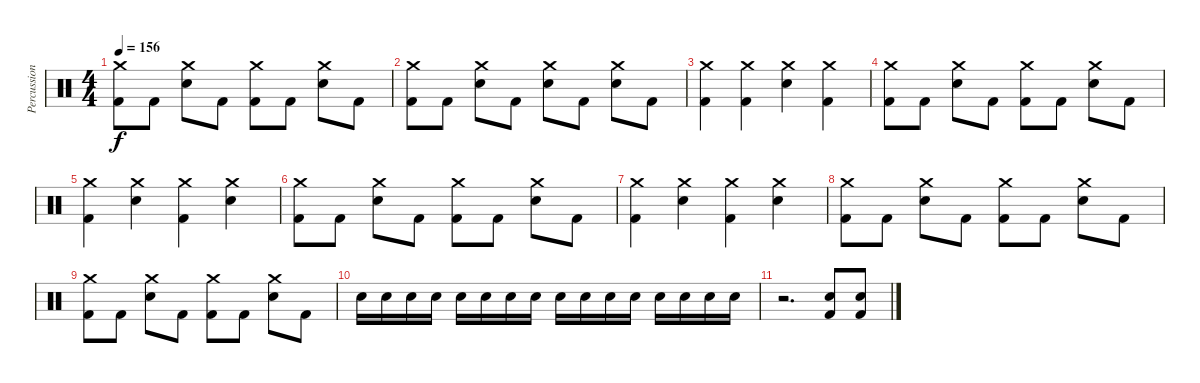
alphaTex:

\track ("Percussion" "Percussion") {instrument percussion}
\staff {score}
\articulation defaults
\ts (4 4)
\tempo 156
\clef neutral
\ks c
("Crash medium (hit)" "Kick (hit) 2").8{dy f} "Kick (hit) 2".8 ("Crash medium (hit)" "Electric Snare (hit)").8 "Kick (hit) 2".8 ("Crash medium (hit)" "Kick (hit) 2").8 "Kick (hit) 2".8 ("Crash medium (hit)" "Electric Snare (hit)").8 "Kick (hit) 2".8 |
("Crash medium (hit)" "Kick (hit) 2").8 "Kick (hit) 2".8 ("Crash medium (hit)" "Electric Snare (hit)").8 "Kick (hit) 2".8 ("Crash medium (hit)" "Electric Snare (hit)").8 "Kick (hit) 2".8 ("Crash medium (hit)" "Electric Snare (hit)").8 "Kick (hit) 2".8 |
("Crash medium (hit)" "Kick (hit) 2").4 ("Crash medium (hit)" "Kick (hit) 2").4 ("Crash medium (hit)" "Electric Snare (hit)").4 ("Crash medium (hit)" "Kick (hit) 2").4 |
("Crash medium (hit)" "Kick (hit) 2").8 "Kick (hit) 2".8 ("Crash medium (hit)" "Electric Snare (hit)").8 "Kick (hit) 2".8 ("Crash medium (hit)" "Kick (hit) 2").8 "Kick (hit) 2".8 ("Crash medium (hit)" "Electric Snare (hit)").8 "Kick (hit) 2".8 |
("Crash medium (hit)" "Kick (hit) 2").4 ("Crash medium (hit)" "Electric Snare (hit)").4 ("Crash medium (hit)" "Kick (hit) 2").4 ("Crash medium (hit)" "Electric Snare (hit)").4 |
("Crash medium (hit)" "Kick (hit) 2").8 "Kick (hit) 2".8 ("Crash medium (hit)" "Electric Snare (hit)").8 "Kick (hit) 2".8 ("Crash medium (hit)" "Kick (hit) 2").8 "Kick (hit) 2".8 ("Crash medium (hit)" "Electric Snare (hit)").8 "Kick (hit) 2".8 |
("Crash medium (hit)" "Kick (hit) 2").4 ("Crash medium (hit)" "Electric Snare (hit)").4 ("Crash medium (hit)" "Kick (hit) 2").4 ("Crash medium (hit)" "Electric Snare (hit)").4 |
("Crash medium (hit)" "Kick (hit) 2").8 "Kick (hit) 2".8 ("Crash medium (hit)" "Electric Snare (hit)").8 "Kick (hit) 2".8 ("Crash medium (hit)" "Kick (hit) 2").8 "Kick (hit) 2".8 ("Crash medium (hit)" "Electric Snare (hit)").8 "Kick (hit) 2".8 |
("Crash medium (hit)" "Kick (hit) 2").8 "Kick (hit) 2".8 ("Crash medium (hit)" "Electric Snare (hit)").8 "Kick (hit) 2".8 ("Crash medium (hit)" "Kick (hit) 2").8 "Kick (hit) 2".8 ("Crash medium (hit)" "Electric Snare (hit)").8 "Kick (hit) 2".8 |
"Electric Snare (hit)".16 "Electric Snare (hit)".16 "Electric Snare (hit)".16 "Electric Snare (hit)".16 "Electric Snare (hit)".16 "Electric Snare (hit)".16 "Electric Snare (hit)".16 "Electric Snare (hit)".16 "Electric Snare (hit)".16 "Electric Snare (hit)".16 "Electric Snare (hit)".16 "Electric Snare (hit)".16 "Electric Snare (hit)".16 "Electric Snare (hit)".16 "Electric Snare (hit)".16 "Electric Snare (hit)".16 |
r.2{d} ("Electric Snare (hit)" "Kick (hit) 2").8 ("Electric Snare (hit)" "Kick (hit) 2").8
